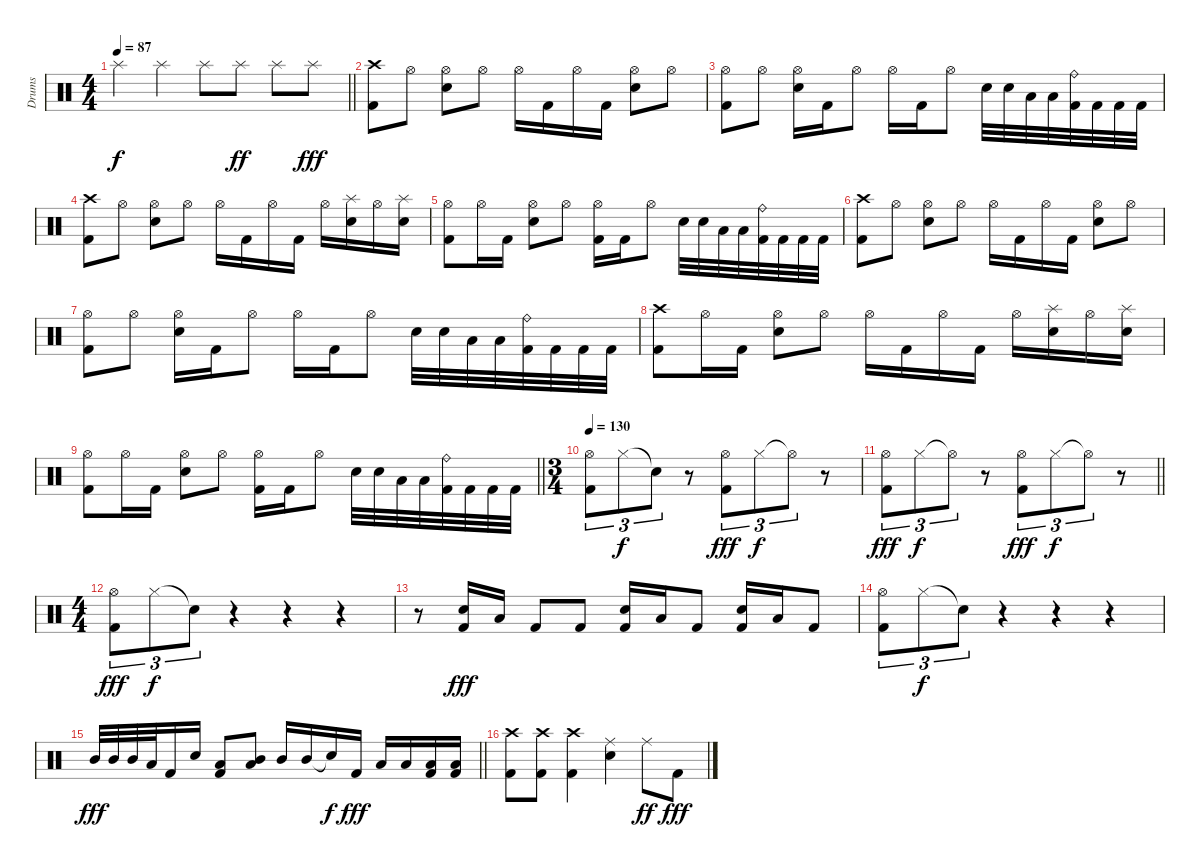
\track ("Drums" "Drums") {instrument percussion}
\staff {score}
\articulation defaults
\ts (4 4)
\tempo 87
\clef neutral
\barLineRight lightlight
\ks c "Splash (hit)".4{dy f} "Splash (hit)".4 "Splash (hit)".8 "Splash (hit)".8{dy ff} "Splash (hit)".8 "Splash (hit)".8{dy fff}
|
\section ("" "")
("Crash high (hit)" "Kick (hit) 2").8 "Hi-Hat (open)".8 ("Hi-Hat (open)" "Snare (hit) 2").8 "Hi-Hat (open)".8 "Hi-Hat (open)".16 "Kick (hit) 2".16 "Hi-Hat (open)".16 "Kick (hit) 2".16 ("Hi-Hat (open)" "Snare (hit) 2").8 "Hi-Hat (open)".8 |
("Hi-Hat (open)" "Kick (hit) 2").8 "Hi-Hat (open)".8 ("Hi-Hat (open)" "Snare (hit) 2").16 "Kick (hit) 2".16 "Hi-Hat (open)".8 "Hi-Hat (open)".16 "Kick (hit) 2".16 "Hi-Hat (open)".8 "Snare (hit) 2".32 "Snare (hit) 2".32 "Low Tom (hit)".32 "Low Tom (hit)".32 ("Ride (bell)" "Kick (hit) 2").32 "Kick (hit) 2".32 "Kick (hit) 2".32 "Kick (hit) 2".32 |
("Crash high (hit)" "Kick (hit) 2").8 "Hi-Hat (open)".8 ("Hi-Hat (open)" "Snare (hit) 2").8 "Hi-Hat (open)".8 "Hi-Hat (open)".16 "Kick (hit) 2".16 "Hi-Hat (open)".16 "Kick (hit) 2".16 "Hi-Hat (open)".16 ("Splash (hit)" "Snare (hit) 2").16 "Hi-Hat (open)".16 ("Splash (hit)" "Snare (hit) 2").16 |
("Hi-Hat (open)" "Kick (hit) 2").8 "Hi-Hat (open)".16 "Kick (hit) 2".16 ("Hi-Hat (open)" "Snare (hit) 2").8 "Hi-Hat (open)".8 ("Hi-Hat (open)" "Kick (hit) 2").16 "Kick (hit) 2".16 "Hi-Hat (open)".8 "Snare (hit) 2".32 "Snare (hit) 2".32 "Low Tom (hit)".32 "Low Tom (hit)".32 ("Ride (bell)" "Kick (hit) 2").32 "Kick (hit) 2".32 "Kick (hit) 2".32 "Kick (hit) 2".32 |
("Crash high (hit)" "Kick (hit) 2").8 "Hi-Hat (open)".8 ("Hi-Hat (open)" "Snare (hit) 2").8 "Hi-Hat (open)".8 "Hi-Hat (open)".16 "Kick (hit) 2".16 "Hi-Hat (open)".16 "Kick (hit) 2".16 ("Hi-Hat (open)" "Snare (hit) 2").8 "Hi-Hat (open)".8 |
("Hi-Hat (open)" "Kick (hit) 2").8 "Hi-Hat (open)".8 ("Hi-Hat (open)" "Snare (hit) 2").16 "Kick (hit) 2".16 "Hi-Hat (open)".8 "Hi-Hat (open)".16 "Kick (hit) 2".16 "Hi-Hat (open)".8 "Snare (hit) 2".32 "Snare (hit) 2".32 "Low Tom (hit)".32 "Low Tom (hit)".32 ("Ride (bell)" "Kick (hit) 2").32 "Kick (hit) 2".32 "Kick (hit) 2".32 "Kick (hit) 2".32 |
("Crash high (hit)" "Kick (hit) 2").8 "Hi-Hat (open)".16 "Kick (hit) 2".16 ("Hi-Hat (open)" "Snare (hit) 2").8 "Hi-Hat (open)".8 "Hi-Hat (open)".16 "Kick (hit) 2".16 "Hi-Hat (open)".16 "Kick (hit) 2".16 "Hi-Hat (open)".16 ("Splash (hit)" "Snare (hit) 2").16 "Hi-Hat (open)".16 ("Splash (hit)" "Snare (hit) 2").16 |
\barLineRight lightlight
("Hi-Hat (open)" "Kick (hit) 2").8 "Hi-Hat (open)".16 "Kick (hit) 2".16 ("Hi-Hat (open)" "Snare (hit) 2").8 "Hi-Hat (open)".8 ("Hi-Hat (open)" "Kick (hit) 2").16 "Kick (hit) 2".16 "Hi-Hat (open)".8 "Snare (hit) 2".32 "Snare (hit) 2".32 "Low Tom (hit)".32 "Low Tom (hit)".32 ("Ride (bell)" "Kick (hit) 2").32 "Kick (hit) 2".32 "Kick (hit) 2".32 "Kick (hit) 2".32 |
\ts (3 4)
\section ("" "")
\tempo 130
("Hi-Hat (open)" "Kick (hit) 2").8{tu (3 2)} "Hi-Hat (closed)".8{tu (3 2) dy f} "Snare (hit)"{t}.8{tu (3 2)} r.8 ("Hi-Hat (open)" "Kick (hit) 2").8{tu (3 2) dy fff} "Hi-Hat (closed)".8{tu (3 2) dy f} "Hi-Hat (open)"{t}.8{tu (3 2)} r.8 |
\barLineRight lightlight
("Hi-Hat (open)" "Kick (hit) 2").8{tu (3 2) dy fff} "Hi-Hat (closed)".8{tu (3 2) dy f} "Hi-Hat (open)"{t}.8{tu (3 2)} r.8 ("Hi-Hat (open)" "Kick (hit) 2").8{tu (3 2) dy fff} "Hi-Hat (closed)".8{tu (3 2) dy f} "Hi-Hat (open)"{t}.8{tu (3 2)} r.8 |
\ts (4 4)
("Hi-Hat (open)" "Kick (hit) 2").8{tu (3 2) dy fff} "Hi-Hat (closed)".8{tu (3 2) dy f} "Snare (hit)"{t}.8{tu (3 2)} r.4 r.4 r.4 |
r.8 ("Snare (hit) 2" "Kick (hit) 2").16{dy fff} "Low Tom (hit)".16 "Kick (hit) 2".8 "Kick (hit) 2".8 ("Snare (hit) 2" "Kick (hit) 2").16 "Low Tom (hit)".16 "Kick (hit) 2".8 ("Snare (hit) 2" "Kick (hit) 2").16 "Low Tom (hit)".16 "Kick (hit) 2".8 |
("Hi-Hat (open)" "Kick (hit) 2").8{tu (3 2)} "Hi-Hat (closed)".8{tu (3 2) dy f} "Snare (hit)"{t}.8{tu (3 2)} r.4 r.4 r.4 |
\barLineRight lightlight "Mid Tom (hit)".32{dy fff} "Mid Tom (hit)".32 "Mid Tom (hit)".32 "Low Tom (hit)".32 "Kick (hit) 2".16 "Snare (hit) 2".16
("Low Tom (hit)" "Kick (hit) 2").8 ("Low Tom (hit)" "Mid Tom (hit)").8 "Mid Tom (hit)".16 "Mid Tom (hit)".16 "Snare (hit)"{t}.16{dy f} "Kick (hit) 2".16{dy fff} "Low Tom (hit)".16 "Low Tom (hit)".16 ("Low Tom (hit)" "Kick (hit) 2").16 ("Low Tom (hit)" "Kick (hit) 2").16 |
\section ("" "")
("Crash high (hit)" "Kick (hit) 2").8 ("Crash high (hit)" "Kick (hit) 2").8 ("Crash high (hit)" "Kick (hit) 2").4 ("Ride (middle)" "Snare (hit) 2").4 "Ride (middle)".8{dy ff} "Kick (hit) 2".8{dy fff}
